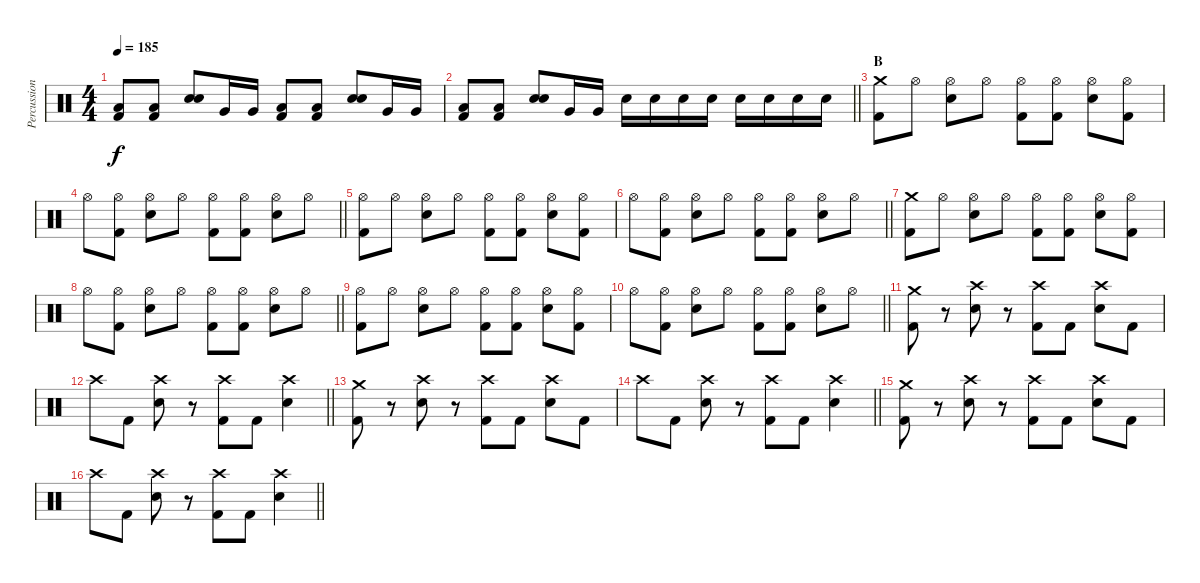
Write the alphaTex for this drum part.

\track ("Percussion" "Percussion") {instrument percussion}
\staff {score}
\articulation defaults
\ts (4 4)
\tempo 185
\clef neutral
\ks c
("Low Floor Tom (hit)" "Kick (hit) 2").8{dy f} ("Low Floor Tom (hit)" "Kick (hit) 2").8 ("Electric Snare (hit)" "Electric Snare (hit)").8 "Very Low Tom (hit)".16 "Very Low Tom (hit)".16 ("Low Floor Tom (hit)" "Kick (hit) 2").8 ("Low Floor Tom (hit)" "Kick (hit) 2").8 ("Electric Snare (hit)" "Electric Snare (hit)").8 "Very Low Tom (hit)".16 "Very Low Tom (hit)".16 |
\barLineRight lightlight
("Low Floor Tom (hit)" "Kick (hit) 2").8 ("Low Floor Tom (hit)" "Kick (hit) 2").8 ("Electric Snare (hit)" "Electric Snare (hit)").8 "Very Low Tom (hit)".16 "Very Low Tom (hit)".16 "Electric Snare (hit)".16 "Electric Snare (hit)".16 "Electric Snare (hit)".16 "Electric Snare (hit)".16 "Electric Snare (hit)".16 "Electric Snare (hit)".16 "Electric Snare (hit)".16 "Electric Snare (hit)".16 |
\section ("" "B")
("Crash medium (hit)" "Kick (hit) 2").8 "Hi-Hat (open)".8 ("Hi-Hat (open)" "Electric Snare (hit)").8 "Hi-Hat (open)".8 ("Hi-Hat (open)" "Kick (hit) 2").8 ("Hi-Hat (open)" "Kick (hit) 2").8 ("Hi-Hat (open)" "Electric Snare (hit)").8 ("Hi-Hat (open)" "Kick (hit) 2").8 |
\barLineRight lightlight "Hi-Hat (open)".8
("Hi-Hat (open)" "Kick (hit) 2").8 ("Hi-Hat (open)" "Electric Snare (hit)").8 "Hi-Hat (open)".8 ("Hi-Hat (open)" "Kick (hit) 2").8 ("Hi-Hat (open)" "Kick (hit) 2").8 ("Hi-Hat (open)" "Electric Snare (hit)").8 "Hi-Hat (open)".8 |
("Hi-Hat (open)" "Kick (hit) 2").8 "Hi-Hat (open)".8 ("Hi-Hat (open)" "Electric Snare (hit)").8 "Hi-Hat (open)".8 ("Hi-Hat (open)" "Kick (hit) 2").8 ("Hi-Hat (open)" "Kick (hit) 2").8 ("Hi-Hat (open)" "Electric Snare (hit)").8 ("Hi-Hat (open)" "Kick (hit) 2").8 |
\barLineRight lightlight "Hi-Hat (open)".8
("Hi-Hat (open)" "Kick (hit) 2").8 ("Hi-Hat (open)" "Electric Snare (hit)").8 "Hi-Hat (open)".8 ("Hi-Hat (open)" "Kick (hit) 2").8 ("Hi-Hat (open)" "Kick (hit) 2").8 ("Hi-Hat (open)" "Electric Snare (hit)").8 "Hi-Hat (open)".8 |
("Crash medium (hit)" "Kick (hit) 2").8 "Hi-Hat (open)".8 ("Hi-Hat (open)" "Electric Snare (hit)").8 "Hi-Hat (open)".8 ("Hi-Hat (open)" "Kick (hit) 2").8 ("Hi-Hat (open)" "Kick (hit) 2").8 ("Hi-Hat (open)" "Electric Snare (hit)").8 ("Hi-Hat (open)" "Kick (hit) 2").8 |
\barLineRight lightlight "Hi-Hat (open)".8
("Hi-Hat (open)" "Kick (hit) 2").8 ("Hi-Hat (open)" "Electric Snare (hit)").8 "Hi-Hat (open)".8 ("Hi-Hat (open)" "Kick (hit) 2").8 ("Hi-Hat (open)" "Kick (hit) 2").8 ("Hi-Hat (open)" "Electric Snare (hit)").8 "Hi-Hat (open)".8 |
("Hi-Hat (open)" "Kick (hit) 2").8 "Hi-Hat (open)".8 ("Hi-Hat (open)" "Electric Snare (hit)").8 "Hi-Hat (open)".8 ("Hi-Hat (open)" "Kick (hit) 2").8 ("Hi-Hat (open)" "Kick (hit) 2").8 ("Hi-Hat (open)" "Electric Snare (hit)").8 ("Hi-Hat (open)" "Kick (hit) 2").8 |
\barLineRight lightlight "Hi-Hat (open)".8
("Hi-Hat (open)" "Kick (hit) 2").8 ("Hi-Hat (open)" "Electric Snare (hit)").8 "Hi-Hat (open)".8 ("Hi-Hat (open)" "Kick (hit) 2").8 ("Hi-Hat (open)" "Kick (hit) 2").8 ("Hi-Hat (open)" "Electric Snare (hit)").8 "Hi-Hat (open)".8 |
("Crash medium (hit)" "Kick (hit) 2").8 r.8 ("Crash high (hit)" "Electric Snare (hit)").8 r.8 ("Crash high (hit)" "Kick (hit) 2").8 "Kick (hit) 2".8 ("Crash high (hit)" "Electric Snare (hit)").8 "Kick (hit) 2".8 |
\barLineRight lightlight "Crash high (hit)".8 "Kick (hit) 2".8
("Crash high (hit)" "Electric Snare (hit)").8 r.8 ("Crash high (hit)" "Kick (hit) 2").8 "Kick (hit) 2".8 ("Crash high (hit)" "Electric Snare (hit)").4 |
("Crash medium (hit)" "Kick (hit) 2").8 r.8 ("Crash high (hit)" "Electric Snare (hit)").8 r.8 ("Crash high (hit)" "Kick (hit) 2").8 "Kick (hit) 2".8 ("Crash high (hit)" "Electric Snare (hit)").8 "Kick (hit) 2".8 |
\barLineRight lightlight "Crash high (hit)".8 "Kick (hit) 2".8
("Crash high (hit)" "Electric Snare (hit)").8 r.8 ("Crash high (hit)" "Kick (hit) 2").8 "Kick (hit) 2".8 ("Crash high (hit)" "Electric Snare (hit)").4 |
("Crash medium (hit)" "Kick (hit) 2").8 r.8 ("Crash high (hit)" "Electric Snare (hit)").8 r.8 ("Crash high (hit)" "Kick (hit) 2").8 "Kick (hit) 2".8 ("Crash high (hit)" "Electric Snare (hit)").8 "Kick (hit) 2".8 |
\barLineRight lightlight "Crash high (hit)".8 "Kick (hit) 2".8
("Crash high (hit)" "Electric Snare (hit)").8 r.8 ("Crash high (hit)" "Kick (hit) 2").8 "Kick (hit) 2".8 ("Crash high (hit)" "Electric Snare (hit)").4
